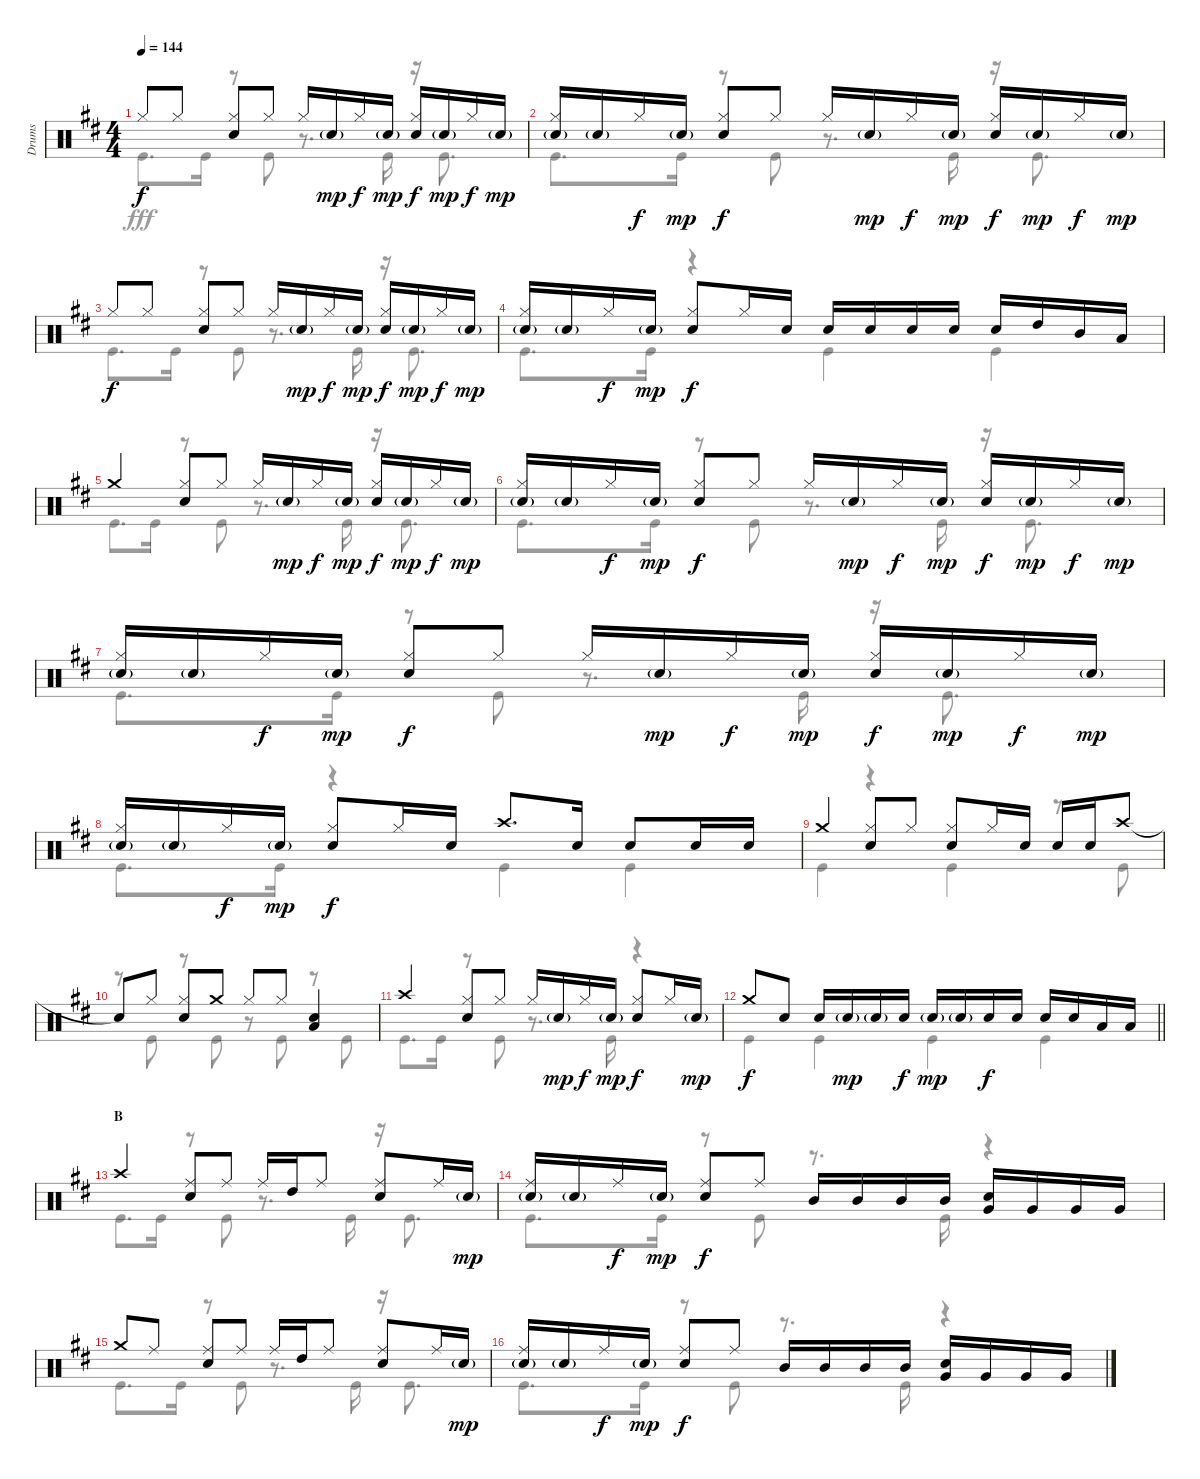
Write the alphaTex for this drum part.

\track ("Drums" "Drums") {instrument percussion}
\staff {score}
\articulation defaults
\voice
\ts (4 4)
\tempo 144
\clef neutral
\ks d "Hi-Hat (closed)".8{dy f} "Hi-Hat (closed)".8
("Hi-Hat (closed)" "Snare (hit) 2").8 "Hi-Hat (closed)".8 "Hi-Hat (closed)".16 "Snare (hit) 2"{g}.16{dy mp} "Hi-Hat (closed)".16{dy f} "Snare (hit) 2"{g}.16{dy mp} ("Hi-Hat (closed)" "Snare (hit) 2").16{dy f} "Snare (hit) 2"{g}.16{dy mp} "Hi-Hat (closed)".16{dy f} "Snare (hit) 2"{g}.16{dy mp} |
("Hi-Hat (closed)" "Snare (hit) 2"{g}).16 "Snare (hit) 2"{g}.16 "Hi-Hat (closed)".16{dy f} "Snare (hit) 2"{g}.16{dy mp} ("Hi-Hat (closed)" "Snare (hit) 2").8{dy f} "Hi-Hat (closed)".8 "Hi-Hat (closed)".16 "Snare (hit) 2"{g}.16{dy mp} "Hi-Hat (closed)".16{dy f} "Snare (hit) 2"{g}.16{dy mp} ("Hi-Hat (closed)" "Snare (hit) 2").16{dy f} "Snare (hit) 2"{g}.16{dy mp} "Hi-Hat (closed)".16{dy f} "Snare (hit) 2"{g}.16{dy mp} |
"Hi-Hat (closed)".8{dy f} "Hi-Hat (closed)".8 ("Hi-Hat (closed)" "Snare (hit) 2").8 "Hi-Hat (closed)".8 "Hi-Hat (closed)".16 "Snare (hit) 2"{g}.16{dy mp} "Hi-Hat (closed)".16{dy f} "Snare (hit) 2"{g}.16{dy mp} ("Hi-Hat (closed)" "Snare (hit) 2").16{dy f} "Snare (hit) 2"{g}.16{dy mp} "Hi-Hat (closed)".16{dy f} "Snare (hit) 2"{g}.16{dy mp} |
("Hi-Hat (closed)" "Snare (hit) 2"{g}).16 "Snare (hit) 2"{g}.16 "Hi-Hat (closed)".16{dy f} "Snare (hit) 2"{g}.16{dy mp} ("Hi-Hat (closed)" "Snare (hit) 2").8{dy f} "Hi-Hat (closed)".16 "Snare (hit) 2".16 "Snare (hit) 2".16 "Snare (hit) 2".16 "Snare (hit) 2".16 "Snare (hit) 2".16 "Snare (hit) 2".16 "High Tom (hit)".16 "Mid Tom (hit)".16 "Low Tom (hit)".16 |
"Crash medium (hit)".4 ("Hi-Hat (closed)" "Snare (hit) 2").8 "Hi-Hat (closed)".8 "Hi-Hat (closed)".16 "Snare (hit) 2"{g}.16{dy mp} "Hi-Hat (closed)".16{dy f} "Snare (hit) 2"{g}.16{dy mp} ("Hi-Hat (closed)" "Snare (hit) 2").16{dy f} "Snare (hit) 2"{g}.16{dy mp} "Hi-Hat (closed)".16{dy f} "Snare (hit) 2"{g}.16{dy mp} |
("Hi-Hat (closed)" "Snare (hit) 2"{g}).16 "Snare (hit) 2"{g}.16 "Hi-Hat (closed)".16{dy f} "Snare (hit) 2"{g}.16{dy mp} ("Hi-Hat (closed)" "Snare (hit) 2").8{dy f} "Hi-Hat (closed)".8 "Hi-Hat (closed)".16 "Snare (hit) 2"{g}.16{dy mp} "Hi-Hat (closed)".16{dy f} "Snare (hit) 2"{g}.16{dy mp} ("Hi-Hat (closed)" "Snare (hit) 2").16{dy f} "Snare (hit) 2"{g}.16{dy mp} "Hi-Hat (closed)".16{dy f} "Snare (hit) 2"{g}.16{dy mp} |
("Hi-Hat (closed)" "Snare (hit) 2"{g}).16 "Snare (hit) 2"{g}.16 "Hi-Hat (closed)".16{dy f} "Snare (hit) 2"{g}.16{dy mp} ("Hi-Hat (closed)" "Snare (hit) 2").8{dy f} "Hi-Hat (closed)".8 "Hi-Hat (closed)".16 "Snare (hit) 2"{g}.16{dy mp} "Hi-Hat (closed)".16{dy f} "Snare (hit) 2"{g}.16{dy mp} ("Hi-Hat (closed)" "Snare (hit) 2").16{dy f} "Snare (hit) 2"{g}.16{dy mp} "Hi-Hat (closed)".16{dy f} "Snare (hit) 2"{g}.16{dy mp} |
("Hi-Hat (closed)" "Snare (hit) 2"{g}).16 "Snare (hit) 2"{g}.16 "Hi-Hat (closed)".16{dy f} "Snare (hit) 2"{g}.16{dy mp} ("Hi-Hat (closed)" "Snare (hit) 2").8{dy f} "Hi-Hat (closed)".16 "Snare (hit) 2".16 "Crash high (hit)".8{d} "Snare (hit) 2".16 "Snare (hit) 2".8 "Snare (hit) 2".16 "Snare (hit) 2".16 |
"Crash medium (hit)".4 ("Hi-Hat (closed)" "Snare (hit) 2").8 "Hi-Hat (closed)".8 ("Hi-Hat (closed)" "Snare (hit) 2").8 "Hi-Hat (closed)".16 "Snare (hit) 2".16 "Snare (hit) 2".16 "Snare (hit) 2".16 "Crash high (hit)".8 |
"Snare (hit)"{t}.8 "Hi-Hat (closed)".8 ("Hi-Hat (closed)" "Snare (hit) 2").8 "Crash medium (hit)".8 "Hi-Hat (closed)".8 "Hi-Hat (closed)".8 ("Snare (hit) 2" "Low Tom (hit)").4 |
"Crash high (hit)".4 ("Hi-Hat (closed)" "Snare (hit) 2").8 "Hi-Hat (closed)".8 "Hi-Hat (closed)".16 "Snare (hit) 2"{g}.16{dy mp} "Hi-Hat (closed)".16{dy f} "Snare (hit) 2"{g}.16{dy mp} ("Hi-Hat (closed)" "Snare (hit) 2").8{dy f} "Hi-Hat (closed)".16 "Snare (hit) 2"{g}.16{dy mp} |
\barLineRight lightlight "Crash medium (hit)".8{dy f} "Snare (hit) 2".8 "Snare (hit) 2".16 "Snare (hit) 2"{g}.16{dy mp} "Snare (hit) 2"{g}.16 "Snare (hit) 2".16{dy f} "Snare (hit) 2"{g}.16{dy mp} "Snare (hit) 2"{g}.16 "Snare (hit) 2".16{dy f} "Snare (hit) 2".16 "Snare (hit) 2".16 "Snare (hit) 2".16 "Low Tom (hit)".16 "Low Tom (hit)".16
|
\section ("" "B")
"Crash high (hit)".4 ("Ride (middle)" "Snare (hit) 2").8 "Ride (middle)".8 "Ride (middle)".16 "High Tom (hit)".16 "Ride (middle)".8 ("Ride (middle)" "Snare (hit) 2").8 "Ride (middle)".16 "Snare (hit) 2"{g}.16{dy mp} |
("Ride (middle)" "Snare (hit) 2"{g}).16 "Snare (hit) 2"{g}.16 "Ride (middle)".16{dy f} "Snare (hit) 2"{g}.16{dy mp} ("Ride (middle)" "Snare (hit) 2").8{dy f} "Ride (middle)".8 "Mid Tom (hit)".16 "Mid Tom (hit)".16 "Mid Tom (hit)".16 "Mid Tom (hit)".16 ("Snare (hit) 2" "Very Low Tom (hit)").16 "Very Low Tom (hit)".16 "Very Low Tom (hit)".16 "Very Low Tom (hit)".16 |
"Crash medium (hit)".8 "Ride (middle)".8 ("Ride (middle)" "Snare (hit) 2").8 "Ride (middle)".8 "Ride (middle)".16 "High Tom (hit)".16 "Ride (middle)".8 ("Ride (middle)" "Snare (hit) 2").8 "Ride (middle)".16 "Snare (hit) 2"{g}.16{dy mp} |
("Ride (middle)" "Snare (hit) 2"{g}).16 "Snare (hit) 2"{g}.16 "Ride (middle)".16{dy f} "Snare (hit) 2"{g}.16{dy mp} ("Ride (middle)" "Snare (hit) 2").8{dy f} "Ride (middle)".8 "Mid Tom (hit)".16 "Mid Tom (hit)".16 "Mid Tom (hit)".16 "Mid Tom (hit)".16 ("Snare (hit) 2" "Very Low Tom (hit)").16 "Very Low Tom (hit)".16 "Very Low Tom (hit)".16 "Very Low Tom (hit)".16
\voice
\clef neutral
\ottava regular
\simile none
\ks d "Kick (hit)".8{d dy fff} "Kick (hit)".16
r.8 "Kick (hit)".8 r.8{d} "Kick (hit)".16 r.16 "Kick (hit)".8{d} |
"Kick (hit)".8{d} "Kick (hit)".16 r.8 "Kick (hit)".8 r.8{d} "Kick (hit)".16 r.16 "Kick (hit)".8{d} |
"Kick (hit)".8{d} "Kick (hit)".16 r.8 "Kick (hit)".8 r.8{d} "Kick (hit)".16 r.16 "Kick (hit)".8{d} |
"Kick (hit)".8{d} "Kick (hit)".16 r.4 "Kick (hit)".4 "Kick (hit)".4 |
"Kick (hit)".8{d} "Kick (hit)".16 r.8 "Kick (hit)".8 r.8{d} "Kick (hit)".16 r.16 "Kick (hit)".8{d} |
"Kick (hit)".8{d} "Kick (hit)".16 r.8 "Kick (hit)".8 r.8{d} "Kick (hit)".16 r.16 "Kick (hit)".8{d} |
"Kick (hit)".8{d} "Kick (hit)".16 r.8 "Kick (hit)".8 r.8{d} "Kick (hit)".16 r.16 "Kick (hit)".8{d} |
"Kick (hit)".8{d} "Kick (hit)".16 r.4 "Kick (hit)".4 "Kick (hit)".4 |
"Kick (hit)".4 r.4 "Kick (hit)".4 r.8 "Kick (hit)".8 |
r.8 "Kick (hit)".8 r.8 "Kick (hit)".8 r.8 "Kick (hit)".8 r.8 "Kick (hit)".8 |
"Kick (hit)".8{d} "Kick (hit)".16 r.8 "Kick (hit)".8 r.8{d} "Kick (hit)".16 r.4 |
\barLineRight lightlight "Kick (hit)".4 "Kick (hit)".4 "Kick (hit)".4 "Kick (hit)".4
|
"Kick (hit)".8{d} "Kick (hit)".16 r.8 "Kick (hit)".8 r.8{d} "Kick (hit)".16 r.16 "Kick (hit)".8{d} |
"Kick (hit)".8{d} "Kick (hit)".16 r.8 "Kick (hit)".8 r.8{d} "Kick (hit)".16 r.4 |
"Kick (hit)".8{d} "Kick (hit)".16 r.8 "Kick (hit)".8 r.8{d} "Kick (hit)".16 r.16 "Kick (hit)".8{d} |
"Kick (hit)".8{d} "Kick (hit)".16 r.8 "Kick (hit)".8 r.8{d} "Kick (hit)".16 r.4
